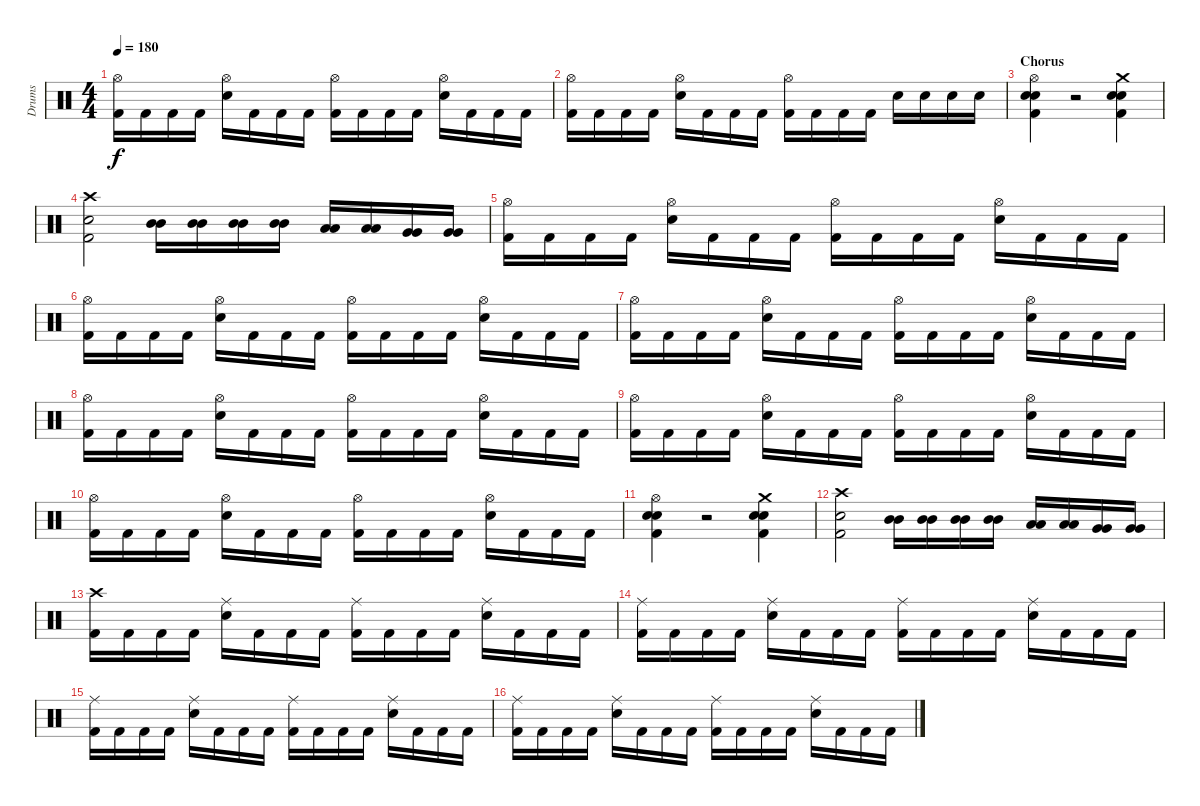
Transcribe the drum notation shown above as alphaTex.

\track ("Drums" "Drums") {instrument percussion}
\staff {score}
\articulation defaults
\ts (4 4)
\tempo 180
\clef neutral
\ks c
("Hi-Hat (open)" "Kick (hit) 2").16{dy f} "Kick (hit) 2".16 "Kick (hit) 2".16 "Kick (hit) 2".16 ("Hi-Hat (open)" "Snare (hit) 2").16 "Kick (hit) 2".16 "Kick (hit) 2".16 "Kick (hit) 2".16 ("Hi-Hat (open)" "Kick (hit) 2").16 "Kick (hit) 2".16 "Kick (hit) 2".16 "Kick (hit) 2".16 ("Hi-Hat (open)" "Snare (hit) 2").16 "Kick (hit) 2".16 "Kick (hit) 2".16 "Kick (hit) 2".16 |
("Hi-Hat (open)" "Kick (hit) 2").16 "Kick (hit) 2".16 "Kick (hit) 2".16 "Kick (hit) 2".16 ("Hi-Hat (open)" "Snare (hit) 2").16 "Kick (hit) 2".16 "Kick (hit) 2".16 "Kick (hit) 2".16 ("Hi-Hat (open)" "Kick (hit) 2").16 "Kick (hit) 2".16 "Kick (hit) 2".16 "Kick (hit) 2".16 "Snare (hit) 2".16 "Snare (hit) 2".16 "Snare (hit) 2".16 "Snare (hit) 2".16 |
\section ("" "Chorus")
("Hi-Hat (open)" "Snare (hit) 2" "Snare (hit) 2" "Kick (hit) 2").4 r.2 ("Crash medium (hit)" "Snare (hit) 2" "Snare (hit) 2" "Kick (hit) 2").4 |
("Crash high (hit)" "Snare (hit) 2" "Kick (hit) 2").2 ("Mid Tom (hit)" "Mid Tom (hit)").16 ("Mid Tom (hit)" "Mid Tom (hit)").16 ("Mid Tom (hit)" "Mid Tom (hit)").16 ("Mid Tom (hit)" "Mid Tom (hit)").16 ("Low Tom (hit)" "Low Tom (hit)").16 ("Low Tom (hit)" "Low Tom (hit)").16 ("Very Low Tom (hit)" "Very Low Tom (hit)").16 ("Very Low Tom (hit)" "Very Low Tom (hit)").16 |
("Hi-Hat (open)" "Kick (hit) 2").16 "Kick (hit) 2".16 "Kick (hit) 2".16 "Kick (hit) 2".16 ("Hi-Hat (open)" "Snare (hit) 2").16 "Kick (hit) 2".16 "Kick (hit) 2".16 "Kick (hit) 2".16 ("Hi-Hat (open)" "Kick (hit) 2").16 "Kick (hit) 2".16 "Kick (hit) 2".16 "Kick (hit) 2".16 ("Hi-Hat (open)" "Snare (hit) 2").16 "Kick (hit) 2".16 "Kick (hit) 2".16 "Kick (hit) 2".16 |
("Hi-Hat (open)" "Kick (hit) 2").16 "Kick (hit) 2".16 "Kick (hit) 2".16 "Kick (hit) 2".16 ("Hi-Hat (open)" "Snare (hit) 2").16 "Kick (hit) 2".16 "Kick (hit) 2".16 "Kick (hit) 2".16 ("Hi-Hat (open)" "Kick (hit) 2").16 "Kick (hit) 2".16 "Kick (hit) 2".16 "Kick (hit) 2".16 ("Hi-Hat (open)" "Snare (hit) 2").16 "Kick (hit) 2".16 "Kick (hit) 2".16 "Kick (hit) 2".16 |
("Hi-Hat (open)" "Kick (hit) 2").16 "Kick (hit) 2".16 "Kick (hit) 2".16 "Kick (hit) 2".16 ("Hi-Hat (open)" "Snare (hit) 2").16 "Kick (hit) 2".16 "Kick (hit) 2".16 "Kick (hit) 2".16 ("Hi-Hat (open)" "Kick (hit) 2").16 "Kick (hit) 2".16 "Kick (hit) 2".16 "Kick (hit) 2".16 ("Hi-Hat (open)" "Snare (hit) 2").16 "Kick (hit) 2".16 "Kick (hit) 2".16 "Kick (hit) 2".16 |
("Hi-Hat (open)" "Kick (hit) 2").16 "Kick (hit) 2".16 "Kick (hit) 2".16 "Kick (hit) 2".16 ("Hi-Hat (open)" "Snare (hit) 2").16 "Kick (hit) 2".16 "Kick (hit) 2".16 "Kick (hit) 2".16 ("Hi-Hat (open)" "Kick (hit) 2").16 "Kick (hit) 2".16 "Kick (hit) 2".16 "Kick (hit) 2".16 ("Hi-Hat (open)" "Snare (hit) 2").16 "Kick (hit) 2".16 "Kick (hit) 2".16 "Kick (hit) 2".16 |
("Hi-Hat (open)" "Kick (hit) 2").16 "Kick (hit) 2".16 "Kick (hit) 2".16 "Kick (hit) 2".16 ("Hi-Hat (open)" "Snare (hit) 2").16 "Kick (hit) 2".16 "Kick (hit) 2".16 "Kick (hit) 2".16 ("Hi-Hat (open)" "Kick (hit) 2").16 "Kick (hit) 2".16 "Kick (hit) 2".16 "Kick (hit) 2".16 ("Hi-Hat (open)" "Snare (hit) 2").16 "Kick (hit) 2".16 "Kick (hit) 2".16 "Kick (hit) 2".16 |
("Hi-Hat (open)" "Kick (hit) 2").16 "Kick (hit) 2".16 "Kick (hit) 2".16 "Kick (hit) 2".16 ("Hi-Hat (open)" "Snare (hit) 2").16 "Kick (hit) 2".16 "Kick (hit) 2".16 "Kick (hit) 2".16 ("Hi-Hat (open)" "Kick (hit) 2").16 "Kick (hit) 2".16 "Kick (hit) 2".16 "Kick (hit) 2".16 ("Hi-Hat (open)" "Snare (hit) 2").16 "Kick (hit) 2".16 "Kick (hit) 2".16 "Kick (hit) 2".16 |
("Hi-Hat (open)" "Snare (hit) 2" "Snare (hit) 2" "Kick (hit) 2").4 r.2 ("Crash medium (hit)" "Snare (hit) 2" "Snare (hit) 2" "Kick (hit) 2").4 |
("Crash high (hit)" "Snare (hit) 2" "Kick (hit) 2").2 ("Mid Tom (hit)" "Mid Tom (hit)").16 ("Mid Tom (hit)" "Mid Tom (hit)").16 ("Mid Tom (hit)" "Mid Tom (hit)").16 ("Mid Tom (hit)" "Mid Tom (hit)").16 ("Low Tom (hit)" "Low Tom (hit)").16 ("Low Tom (hit)" "Low Tom (hit)").16 ("Very Low Tom (hit)" "Very Low Tom (hit)").16 ("Very Low Tom (hit)" "Very Low Tom (hit)").16 |
("Crash high (hit)" "Kick (hit) 2").16 "Kick (hit) 2".16 "Kick (hit) 2".16 "Kick (hit) 2".16 ("Ride (middle)" "Snare (hit) 2").16 "Kick (hit) 2".16 "Kick (hit) 2".16 "Kick (hit) 2".16 ("Ride (middle)" "Kick (hit) 2").16 "Kick (hit) 2".16 "Kick (hit) 2".16 "Kick (hit) 2".16 ("Ride (middle)" "Snare (hit) 2").16 "Kick (hit) 2".16 "Kick (hit) 2".16 "Kick (hit) 2".16 |
("Ride (middle)" "Kick (hit) 2").16 "Kick (hit) 2".16 "Kick (hit) 2".16 "Kick (hit) 2".16 ("Ride (middle)" "Snare (hit) 2").16 "Kick (hit) 2".16 "Kick (hit) 2".16 "Kick (hit) 2".16 ("Ride (middle)" "Kick (hit) 2").16 "Kick (hit) 2".16 "Kick (hit) 2".16 "Kick (hit) 2".16 ("Ride (middle)" "Snare (hit) 2").16 "Kick (hit) 2".16 "Kick (hit) 2".16 "Kick (hit) 2".16 |
("Ride (middle)" "Kick (hit) 2").16 "Kick (hit) 2".16 "Kick (hit) 2".16 "Kick (hit) 2".16 ("Ride (middle)" "Snare (hit) 2").16 "Kick (hit) 2".16 "Kick (hit) 2".16 "Kick (hit) 2".16 ("Ride (middle)" "Kick (hit) 2").16 "Kick (hit) 2".16 "Kick (hit) 2".16 "Kick (hit) 2".16 ("Ride (middle)" "Snare (hit) 2").16 "Kick (hit) 2".16 "Kick (hit) 2".16 "Kick (hit) 2".16 |
("Ride (middle)" "Kick (hit) 2").16 "Kick (hit) 2".16 "Kick (hit) 2".16 "Kick (hit) 2".16 ("Ride (middle)" "Snare (hit) 2").16 "Kick (hit) 2".16 "Kick (hit) 2".16 "Kick (hit) 2".16 ("Ride (middle)" "Kick (hit) 2").16 "Kick (hit) 2".16 "Kick (hit) 2".16 "Kick (hit) 2".16 ("Ride (middle)" "Snare (hit) 2").16 "Kick (hit) 2".16 "Kick (hit) 2".16 "Kick (hit) 2".16
